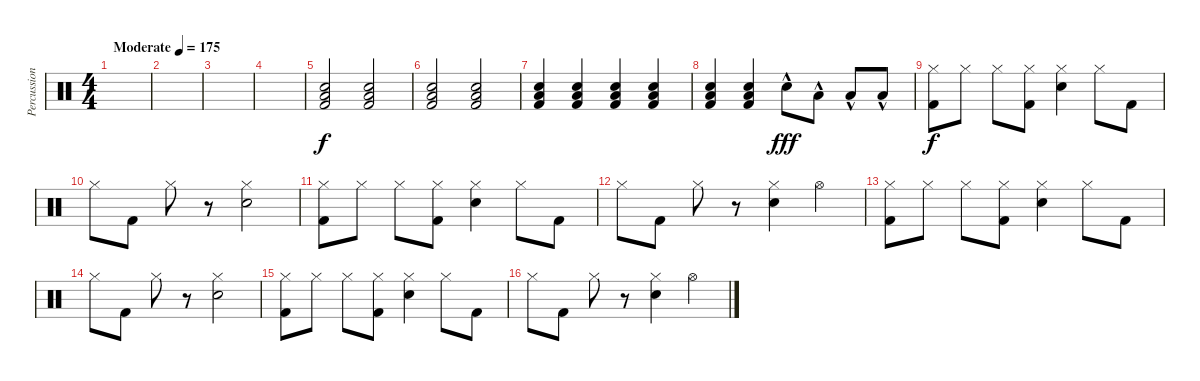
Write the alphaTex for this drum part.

\track ("Percussion" "Percussion") {instrument percussion}
\staff {score}
\articulation defaults
\ts (4 4)
\tempo (175 "Moderate")
\clef neutral
\ks c
|
|
|
|
("Snare (hit) 2" "Low Tom (hit)" "Kick (hit) 2").2 ("Snare (hit) 2" "Low Tom (hit)" "Kick (hit) 2").2 |
("Snare (hit) 2" "Low Tom (hit)" "Kick (hit) 2").2 ("Snare (hit) 2" "Low Tom (hit)" "Kick (hit) 2").2 |
("Snare (hit) 2" "Low Tom (hit)" "Kick (hit) 2").4 ("Snare (hit) 2" "Low Tom (hit)" "Kick (hit) 2").4 ("Snare (hit) 2" "Low Tom (hit)" "Kick (hit) 2").4 ("Snare (hit) 2" "Low Tom (hit)" "Kick (hit) 2").4 |
("Snare (hit) 2" "Low Tom (hit)" "Kick (hit) 2").4 ("Snare (hit) 2" "Low Tom (hit)" "Kick (hit) 2").4 "Snare (hit) 2"{hac}.8{dy fff} "Low Floor Tom (hit)"{hac}.8 "Low Floor Tom (hit)"{hac}.8 "Low Floor Tom (hit)"{hac}.8 |
("Hi-Hat (closed)" "Kick (hit) 2").8{dy f} "Hi-Hat (closed)".8 "Hi-Hat (closed)".8 ("Hi-Hat (closed)" "Kick (hit) 2").8 ("Hi-Hat (closed)" "Snare (hit) 2").4 "Hi-Hat (closed)".8 "Kick (hit) 2".8 |
"Hi-Hat (closed)".8 "Kick (hit) 2".8 "Hi-Hat (closed)".8 r.8 ("Hi-Hat (closed)" "Snare (hit) 2").2 |
("Hi-Hat (closed)" "Kick (hit) 2").8 "Hi-Hat (closed)".8 "Hi-Hat (closed)".8 ("Hi-Hat (closed)" "Kick (hit) 2").8 ("Hi-Hat (closed)" "Snare (hit) 2").4 "Hi-Hat (closed)".8 "Kick (hit) 2".8 |
"Hi-Hat (closed)".8 "Kick (hit) 2".8 "Hi-Hat (closed)".8 r.8 ("Hi-Hat (closed)" "Snare (hit) 2").4 "Hi-Hat (open)".4 |
("Hi-Hat (closed)" "Kick (hit) 2").8 "Hi-Hat (closed)".8 "Hi-Hat (closed)".8 ("Hi-Hat (closed)" "Kick (hit) 2").8 ("Hi-Hat (closed)" "Snare (hit) 2").4 "Hi-Hat (closed)".8 "Kick (hit) 2".8 |
"Hi-Hat (closed)".8 "Kick (hit) 2".8 "Hi-Hat (closed)".8 r.8 ("Hi-Hat (closed)" "Snare (hit) 2").2 |
("Hi-Hat (closed)" "Kick (hit) 2").8 "Hi-Hat (closed)".8 "Hi-Hat (closed)".8 ("Hi-Hat (closed)" "Kick (hit) 2").8 ("Hi-Hat (closed)" "Snare (hit) 2").4 "Hi-Hat (closed)".8 "Kick (hit) 2".8 |
"Hi-Hat (closed)".8 "Kick (hit) 2".8 "Hi-Hat (closed)".8 r.8 ("Hi-Hat (closed)" "Snare (hit) 2").4 "Hi-Hat (open)".4
